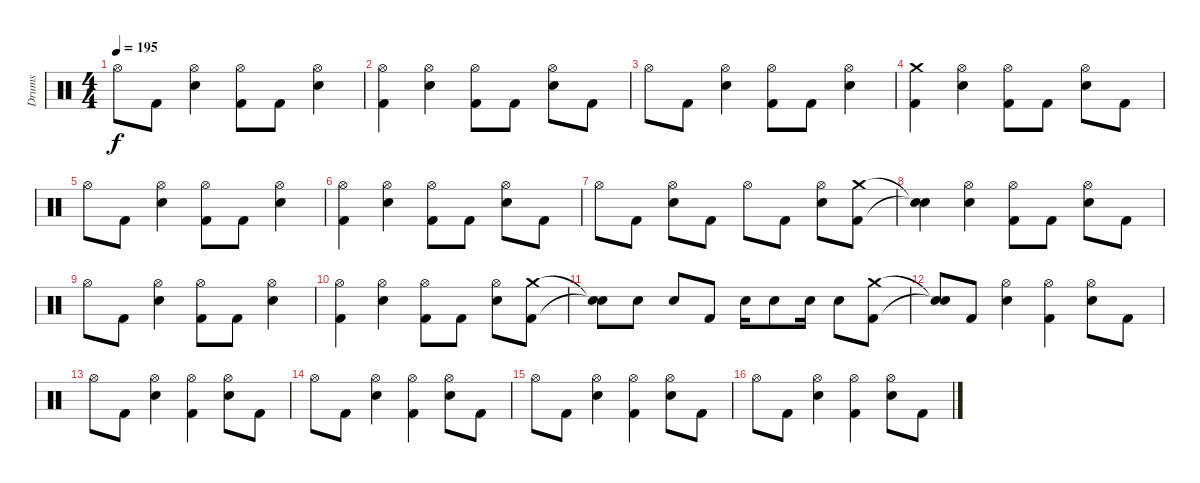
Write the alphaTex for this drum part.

\track ("Drums" "Drums") {instrument percussion}
\staff {score}
\articulation defaults
\ts (4 4)
\tempo 195
\clef neutral
\ks c "Hi-Hat (open)".8{dy f} "Kick (hit) 2".8
("Hi-Hat (open)" "Electric Snare (hit)").4 ("Hi-Hat (open)" "Kick (hit) 2").8 "Kick (hit) 2".8 ("Hi-Hat (open)" "Electric Snare (hit)").4 |
("Hi-Hat (open)" "Kick (hit) 2").4 ("Hi-Hat (open)" "Electric Snare (hit)").4 ("Hi-Hat (open)" "Kick (hit) 2").8 "Kick (hit) 2".8 ("Hi-Hat (open)" "Electric Snare (hit)").8 "Kick (hit) 2".8 |
"Hi-Hat (open)".8 "Kick (hit) 2".8 ("Hi-Hat (open)" "Electric Snare (hit)").4 ("Hi-Hat (open)" "Kick (hit) 2").8 "Kick (hit) 2".8 ("Hi-Hat (open)" "Electric Snare (hit)").4 |
\section ("" "")
("Crash medium (hit)" "Kick (hit) 2").4 ("Hi-Hat (open)" "Electric Snare (hit)").4 ("Hi-Hat (open)" "Kick (hit) 2").8 "Kick (hit) 2".8 ("Hi-Hat (open)" "Electric Snare (hit)").8 "Kick (hit) 2".8 |
"Hi-Hat (open)".8 "Kick (hit) 2".8 ("Hi-Hat (open)" "Electric Snare (hit)").4 ("Hi-Hat (open)" "Kick (hit) 2").8 "Kick (hit) 2".8 ("Hi-Hat (open)" "Electric Snare (hit)").4 |
("Hi-Hat (open)" "Kick (hit) 2").4 ("Hi-Hat (open)" "Electric Snare (hit)").4 ("Hi-Hat (open)" "Kick (hit) 2").8 "Kick (hit) 2".8 ("Hi-Hat (open)" "Electric Snare (hit)").8 "Kick (hit) 2".8 |
"Hi-Hat (open)".8 "Kick (hit) 2".8 ("Hi-Hat (open)" "Electric Snare (hit)").8 "Kick (hit) 2".8 "Hi-Hat (open)".8 "Kick (hit) 2".8 ("Hi-Hat (open)" "Electric Snare (hit)").8 ("Crash medium (hit)" "Kick (hit) 2").8 |
("Snare (hit)"{t} "Snare (hit)"{t}).4 ("Hi-Hat (open)" "Electric Snare (hit)").4 ("Hi-Hat (open)" "Kick (hit) 2").8 "Kick (hit) 2".8 ("Hi-Hat (open)" "Electric Snare (hit)").8 "Kick (hit) 2".8 |
"Hi-Hat (open)".8 "Kick (hit) 2".8 ("Hi-Hat (open)" "Electric Snare (hit)").4 ("Hi-Hat (open)" "Kick (hit) 2").8 "Kick (hit) 2".8 ("Hi-Hat (open)" "Electric Snare (hit)").4 |
("Hi-Hat (open)" "Kick (hit) 2").4 ("Hi-Hat (open)" "Electric Snare (hit)").4 ("Hi-Hat (open)" "Kick (hit) 2").8 "Kick (hit) 2".8 ("Hi-Hat (open)" "Electric Snare (hit)").8 ("Crash medium (hit)" "Kick (hit) 2").8 |
("Snare (hit)"{t} "Snare (hit)"{t}).8 "Electric Snare (hit)".8 "Electric Snare (hit)".8 "Kick (hit) 2".8 "Electric Snare (hit)".16 "Electric Snare (hit)".8 "Electric Snare (hit)".16 "Electric Snare (hit)".8 ("Crash medium (hit)" "Kick (hit) 2").8 |
\section ("" "")
("Snare (hit)"{t} "Snare (hit)"{t}).8 "Kick (hit) 2".8 ("Hi-Hat (open)" "Electric Snare (hit)").4 ("Hi-Hat (open)" "Kick (hit) 2").4 ("Hi-Hat (open)" "Electric Snare (hit)").8 "Kick (hit) 2".8 |
"Hi-Hat (open)".8 "Kick (hit) 2".8 ("Hi-Hat (open)" "Electric Snare (hit)").4 ("Hi-Hat (open)" "Kick (hit) 2").4 ("Hi-Hat (open)" "Electric Snare (hit)").8 "Kick (hit) 2".8 |
"Hi-Hat (open)".8 "Kick (hit) 2".8 ("Hi-Hat (open)" "Electric Snare (hit)").4 ("Hi-Hat (open)" "Kick (hit) 2").4 ("Hi-Hat (open)" "Electric Snare (hit)").8 "Kick (hit) 2".8 |
"Hi-Hat (open)".8 "Kick (hit) 2".8 ("Hi-Hat (open)" "Electric Snare (hit)").4 ("Hi-Hat (open)" "Kick (hit) 2").4 ("Hi-Hat (open)" "Electric Snare (hit)").8 "Kick (hit) 2".8 |
\section ("" "")
"Hi-Hat (open)".8 "Kick (hit) 2".8 ("Hi-Hat (open)" "Electric Snare (hit)").4 ("Hi-Hat (open)" "Kick (hit) 2").4 ("Hi-Hat (open)" "Electric Snare (hit)").8 "Kick (hit) 2".8
